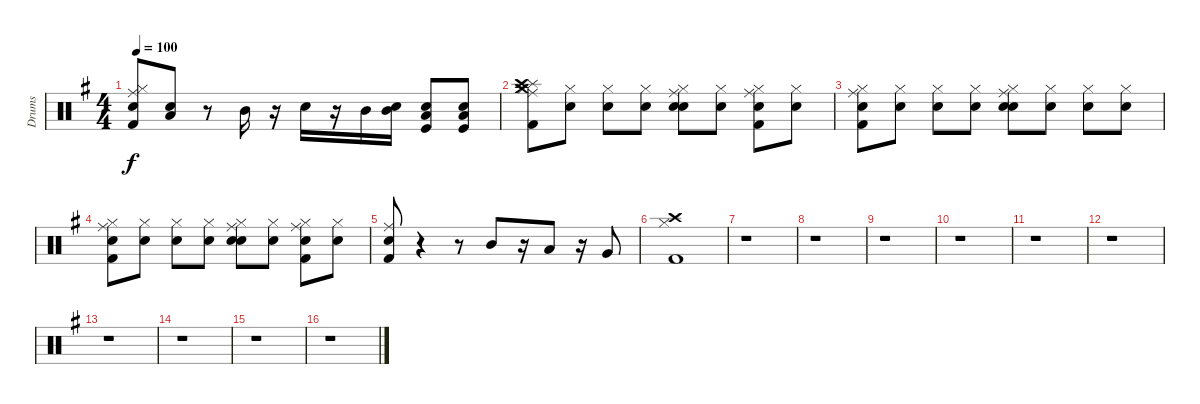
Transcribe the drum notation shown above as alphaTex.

\track ("Drums" "Drums") {instrument percussion}
\staff {score}
\articulation defaults
\ts (4 4)
\tempo 100
\clef neutral
\ks g
("Snare (hit)" "Ride (middle)" "Hi-Hat (closed)" "Kick (hit) 2").8{dy f} ("Snare (hit)" "Low Tom (hit)").8 r.8 "Mid Tom (hit)".16 r.16 "Snare (hit) 2".16 r.16 "Mid Tom (hit)".16 ("Snare (hit)" "Mid Tom (hit)").16 ("Snare (hit)" "Kick (hit)" "Low Tom (hit)").8 ("Snare (hit)" "Kick (hit)" "Low Tom (hit)").8 |
("Ride (middle)" "Hi-Hat (closed)" "Kick (hit) 2" "Crash medium (hit)" "Splash (hit)" "Crash high (hit)").8 ("Snare (hit)" "Hi-Hat (closed)").8 ("Snare (hit)" "Hi-Hat (closed)").8 ("Snare (hit)" "Hi-Hat (closed)").8 ("Snare (hit)" "Ride (middle)" "Hi-Hat (closed)" "Snare (hit) 2").8 ("Snare (hit)" "Hi-Hat (closed)").8 ("Snare (hit)" "Kick (hit) 2" "Ride (middle)" "Hi-Hat (closed)").8 ("Snare (hit)" "Hi-Hat (closed)").8 |
("Snare (hit)" "Kick (hit) 2" "Ride (middle)" "Hi-Hat (closed)").8 ("Snare (hit)" "Hi-Hat (closed)").8 ("Snare (hit)" "Hi-Hat (closed)").8 ("Snare (hit)" "Hi-Hat (closed)").8 ("Snare (hit)" "Snare (hit) 2" "Ride (middle)" "Hi-Hat (closed)").8 ("Snare (hit)" "Hi-Hat (closed)").8 ("Snare (hit)" "Hi-Hat (closed)").8 ("Snare (hit)" "Hi-Hat (closed)").8 |
("Snare (hit)" "Kick (hit) 2" "Ride (middle)" "Hi-Hat (closed)").8 ("Snare (hit)" "Hi-Hat (closed)").8 ("Snare (hit)" "Hi-Hat (closed)").8 ("Snare (hit)" "Hi-Hat (closed)").8 ("Snare (hit)" "Ride (middle)" "Snare (hit) 2" "Hi-Hat (closed)").8 ("Snare (hit)" "Hi-Hat (closed)").8 ("Snare (hit)" "Ride (middle)" "Kick (hit) 2" "Hi-Hat (closed)").8 ("Snare (hit)" "Hi-Hat (closed)").8 |
("Snare (hit)" "Ride (middle)" "Kick (hit) 2").8 r.4 r.8 "Mid Tom (hit)".8 r.16 "Low Tom (hit)".8 r.16 "Very Low Tom (hit)".8 |
("Crash high (hit)" "Hi-Hat (closed)" "Kick (hit) 2").1 |
r.1 |
r.1 |
r.1 |
r.1 |
r.1 |
r.1 |
r.1 |
r.1 |
r.1 |
r.1
